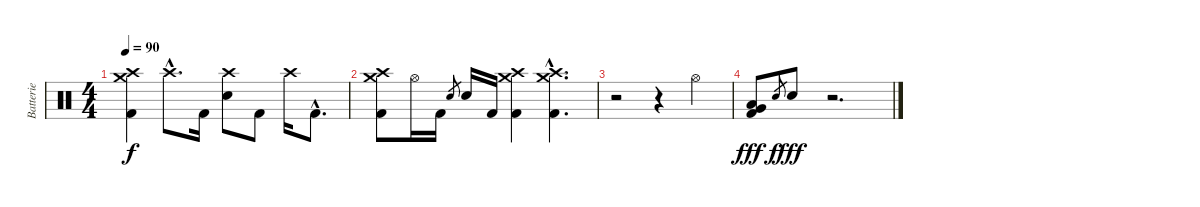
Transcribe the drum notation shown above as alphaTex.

\track ("Batterie" "Batterie") {instrument percussion}
\staff {score}
\articulation defaults
\ts (4 4)
\tempo 90
\clef neutral
\ks c
("Crash medium (hit)" "Crash high (hit)" "Kick (hit) 2").4{dy f} "Crash high (hit)"{hac}.8{d} "Kick (hit) 2".16 ("Crash high (hit)" "Electric Snare (hit)").8 "Kick (hit) 2".8 "Crash high (hit)".16 "Kick (hit) 2"{hac}.8{d} |
("Crash medium (hit)" "Crash high (hit)" "Kick (hit) 2").8 "Hi-Hat (open)".16 "Kick (hit) 2".16 "Electric Snare (hit)".8{gr} "Electric Snare (hit)".16 "Kick (hit) 2".16 ("Crash medium (hit)" "Crash high (hit)" "Kick (hit) 2").4 ("Crash medium (hit)"{hac} "Crash high (hit)"{hac} "Kick (hit) 2"{hac}).4{d} |
r.2 r.4 "Hi-Hat (open)".4 |
("Low Tom (hit)" "Very Low Tom (hit)" "Kick (hit) 2").8{dy fff} "Electric Snare (hit)".8{gr dy f} "Electric Snare (hit)".8{dy fff} r.2{d}
